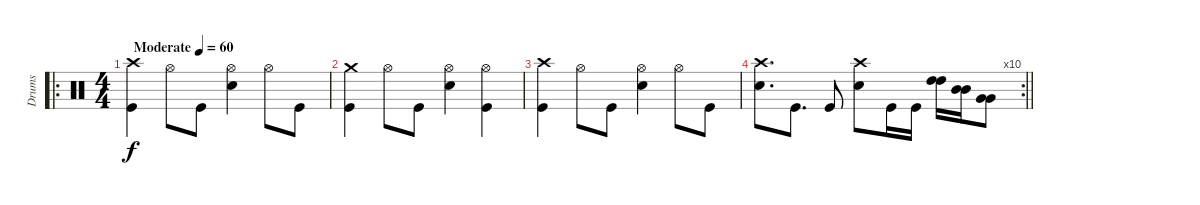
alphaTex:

\track ("Drums" "Drums") {instrument percussion}
\staff {score}
\articulation defaults
\ro
\ts (4 4)
\tempo (60 "Moderate")
\clef neutral
\ks c
("Crash high (hit)" "Kick (hit)").4{dy f} "Hi-Hat (open)".8 "Kick (hit)".8 ("Hi-Hat (open)" "Snare (hit) 2").4 "Hi-Hat (open)".8 "Kick (hit)".8 |
("Crash medium (hit)" "Kick (hit)").4 "Hi-Hat (open)".8 "Kick (hit)".8 ("Hi-Hat (open)" "Snare (hit) 2").4 ("Hi-Hat (open)" "Kick (hit)").4 |
("Crash high (hit)" "Kick (hit)").4 "Hi-Hat (open)".8 "Kick (hit)".8 ("Hi-Hat (open)" "Snare (hit) 2").4 "Hi-Hat (open)".8 "Kick (hit)".8 |
\rc 10
\barLineRight lightlight
("Crash high (hit)" "Snare (hit) 2").8{d} "Kick (hit)".8{d} "Kick (hit)".8 ("Crash high (hit)" "Snare (hit) 2").8 "Kick (hit)".16 "Kick (hit)".16 ("High Tom (hit)" "High Tom (hit)").16{balance 16} ("Mid Tom (hit)" "Mid Tom (hit)").16{balance 0} ("Very Low Tom (hit)" "Very Low Tom (hit)").8{balance 8}
